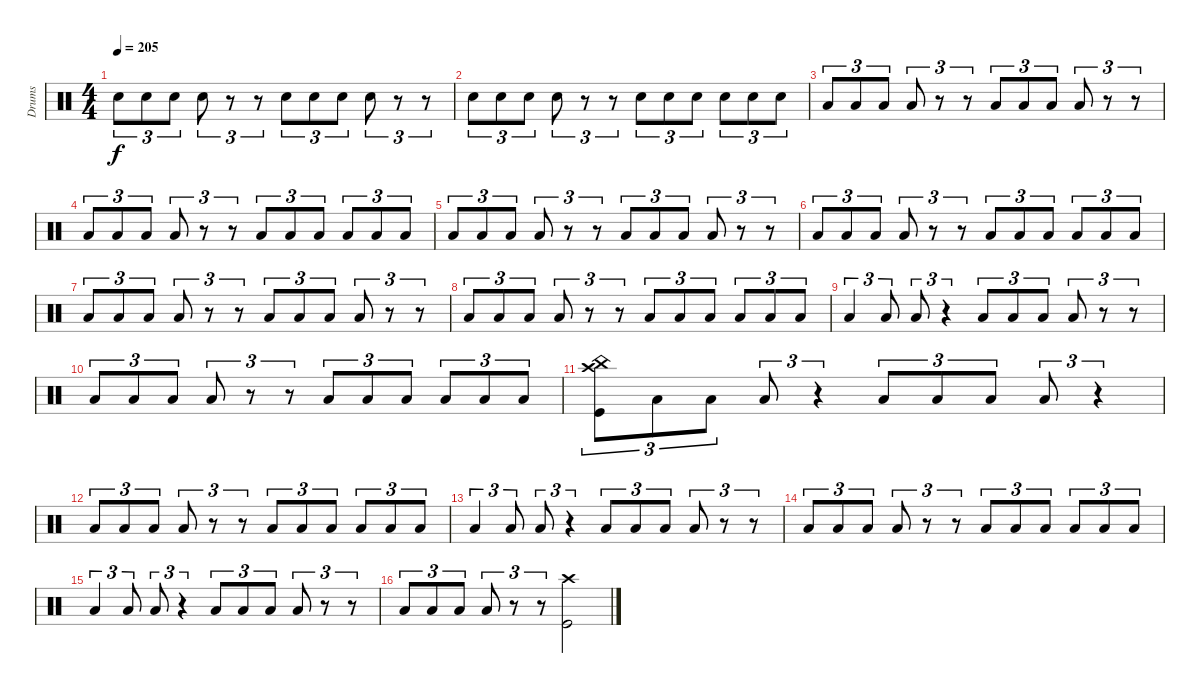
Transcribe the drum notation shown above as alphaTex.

\track ("Drums" "Drums") {instrument percussion}
\staff {score}
\articulation defaults
\ts (4 4)
\tempo 205
\clef neutral
\ks c "Snare (hit) 2".8{tu (3 2) dy f} "Snare (hit) 2".8{tu (3 2)} "Snare (hit) 2".8{tu (3 2)} "Snare (hit) 2".8{tu (3 2)}
r.8{tu (3 2)} r.8{tu (3 2)} "Snare (hit) 2".8{tu (3 2)} "Snare (hit) 2".8{tu (3 2)} "Snare (hit) 2".8{tu (3 2)} "Snare (hit) 2".8{tu (3 2)} r.8{tu (3 2)} r.8{tu (3 2)} |
"Snare (hit) 2".8{tu (3 2)} "Snare (hit) 2".8{tu (3 2)} "Snare (hit) 2".8{tu (3 2)} "Snare (hit) 2".8{tu (3 2)} r.8{tu (3 2)} r.8{tu (3 2)} "Snare (hit) 2".8{tu (3 2)} "Snare (hit) 2".8{tu (3 2)} "Snare (hit) 2".8{tu (3 2)} "Snare (hit) 2".8{tu (3 2)} "Snare (hit) 2".8{tu (3 2)} "Snare (hit) 2".8{tu (3 2)} |
"Low Tom (hit)".8{tu (3 2)} "Low Tom (hit)".8{tu (3 2)} "Low Tom (hit)".8{tu (3 2)} "Low Tom (hit)".8{tu (3 2)} r.8{tu (3 2)} r.8{tu (3 2)} "Low Tom (hit)".8{tu (3 2)} "Low Tom (hit)".8{tu (3 2)} "Low Tom (hit)".8{tu (3 2)} "Low Tom (hit)".8{tu (3 2)} r.8{tu (3 2)} r.8{tu (3 2)} |
"Low Tom (hit)".8{tu (3 2)} "Low Tom (hit)".8{tu (3 2)} "Low Tom (hit)".8{tu (3 2)} "Low Tom (hit)".8{tu (3 2)} r.8{tu (3 2)} r.8{tu (3 2)} "Low Tom (hit)".8{tu (3 2)} "Low Tom (hit)".8{tu (3 2)} "Low Tom (hit)".8{tu (3 2)} "Low Tom (hit)".8{tu (3 2)} "Low Tom (hit)".8{tu (3 2)} "Low Tom (hit)".8{tu (3 2)} |
"Low Tom (hit)".8{tu (3 2)} "Low Tom (hit)".8{tu (3 2)} "Low Tom (hit)".8{tu (3 2)} "Low Tom (hit)".8{tu (3 2)} r.8{tu (3 2)} r.8{tu (3 2)} "Low Tom (hit)".8{tu (3 2)} "Low Tom (hit)".8{tu (3 2)} "Low Tom (hit)".8{tu (3 2)} "Low Tom (hit)".8{tu (3 2)} r.8{tu (3 2)} r.8{tu (3 2)} |
"Low Tom (hit)".8{tu (3 2)} "Low Tom (hit)".8{tu (3 2)} "Low Tom (hit)".8{tu (3 2)} "Low Tom (hit)".8{tu (3 2)} r.8{tu (3 2)} r.8{tu (3 2)} "Low Tom (hit)".8{tu (3 2)} "Low Tom (hit)".8{tu (3 2)} "Low Tom (hit)".8{tu (3 2)} "Low Tom (hit)".8{tu (3 2)} "Low Tom (hit)".8{tu (3 2)} "Low Tom (hit)".8{tu (3 2)} |
"Low Tom (hit)".8{tu (3 2)} "Low Tom (hit)".8{tu (3 2)} "Low Tom (hit)".8{tu (3 2)} "Low Tom (hit)".8{tu (3 2)} r.8{tu (3 2)} r.8{tu (3 2)} "Low Tom (hit)".8{tu (3 2)} "Low Tom (hit)".8{tu (3 2)} "Low Tom (hit)".8{tu (3 2)} "Low Tom (hit)".8{tu (3 2)} r.8{tu (3 2)} r.8{tu (3 2)} |
"Low Tom (hit)".8{tu (3 2)} "Low Tom (hit)".8{tu (3 2)} "Low Tom (hit)".8{tu (3 2)} "Low Tom (hit)".8{tu (3 2)} r.8{tu (3 2)} r.8{tu (3 2)} "Low Tom (hit)".8{tu (3 2)} "Low Tom (hit)".8{tu (3 2)} "Low Tom (hit)".8{tu (3 2)} "Low Tom (hit)".8{tu (3 2)} "Low Tom (hit)".8{tu (3 2)} "Low Tom (hit)".8{tu (3 2)} |
"Low Tom (hit)".4{tu (3 2)} "Low Tom (hit)".8{tu (3 2)} "Low Tom (hit)".8{tu (3 2)} r.4{tu (3 2)} "Low Tom (hit)".8{tu (3 2)} "Low Tom (hit)".8{tu (3 2)} "Low Tom (hit)".8{tu (3 2)} "Low Tom (hit)".8{tu (3 2)} r.8{tu (3 2)} r.8{tu (3 2)} |
"Low Tom (hit)".8{tu (3 2)} "Low Tom (hit)".8{tu (3 2)} "Low Tom (hit)".8{tu (3 2)} "Low Tom (hit)".8{tu (3 2)} r.8{tu (3 2)} r.8{tu (3 2)} "Low Tom (hit)".8{tu (3 2)} "Low Tom (hit)".8{tu (3 2)} "Low Tom (hit)".8{tu (3 2)} "Low Tom (hit)".8{tu (3 2)} "Low Tom (hit)".8{tu (3 2)} "Low Tom (hit)".8{tu (3 2)} |
("China (hit)" "Crash high (hit)" "Kick (hit)").8{tu (3 2)} "Low Tom (hit)".8{tu (3 2)} "Low Tom (hit)".8{tu (3 2)} "Low Tom (hit)".8{tu (3 2)} r.4{tu (3 2)} "Low Tom (hit)".8{tu (3 2)} "Low Tom (hit)".8{tu (3 2)} "Low Tom (hit)".8{tu (3 2)} "Low Tom (hit)".8{tu (3 2)} r.4{tu (3 2)} |
"Low Tom (hit)".8{tu (3 2)} "Low Tom (hit)".8{tu (3 2)} "Low Tom (hit)".8{tu (3 2)} "Low Tom (hit)".8{tu (3 2)} r.8{tu (3 2)} r.8{tu (3 2)} "Low Tom (hit)".8{tu (3 2)} "Low Tom (hit)".8{tu (3 2)} "Low Tom (hit)".8{tu (3 2)} "Low Tom (hit)".8{tu (3 2)} "Low Tom (hit)".8{tu (3 2)} "Low Tom (hit)".8{tu (3 2)} |
"Low Tom (hit)".4{tu (3 2)} "Low Tom (hit)".8{tu (3 2)} "Low Tom (hit)".8{tu (3 2)} r.4{tu (3 2)} "Low Tom (hit)".8{tu (3 2)} "Low Tom (hit)".8{tu (3 2)} "Low Tom (hit)".8{tu (3 2)} "Low Tom (hit)".8{tu (3 2)} r.8{tu (3 2)} r.8{tu (3 2)} |
"Low Tom (hit)".8{tu (3 2)} "Low Tom (hit)".8{tu (3 2)} "Low Tom (hit)".8{tu (3 2)} "Low Tom (hit)".8{tu (3 2)} r.8{tu (3 2)} r.8{tu (3 2)} "Low Tom (hit)".8{tu (3 2)} "Low Tom (hit)".8{tu (3 2)} "Low Tom (hit)".8{tu (3 2)} "Low Tom (hit)".8{tu (3 2)} "Low Tom (hit)".8{tu (3 2)} "Low Tom (hit)".8{tu (3 2)} |
"Low Tom (hit)".4{tu (3 2)} "Low Tom (hit)".8{tu (3 2)} "Low Tom (hit)".8{tu (3 2)} r.4{tu (3 2)} "Low Tom (hit)".8{tu (3 2)} "Low Tom (hit)".8{tu (3 2)} "Low Tom (hit)".8{tu (3 2)} "Low Tom (hit)".8{tu (3 2)} r.8{tu (3 2)} r.8{tu (3 2)} |
"Low Tom (hit)".8{tu (3 2)} "Low Tom (hit)".8{tu (3 2)} "Low Tom (hit)".8{tu (3 2)} "Low Tom (hit)".8{tu (3 2)} r.8{tu (3 2)} r.8{tu (3 2)} ("Crash high (hit)" "Kick (hit)").2
